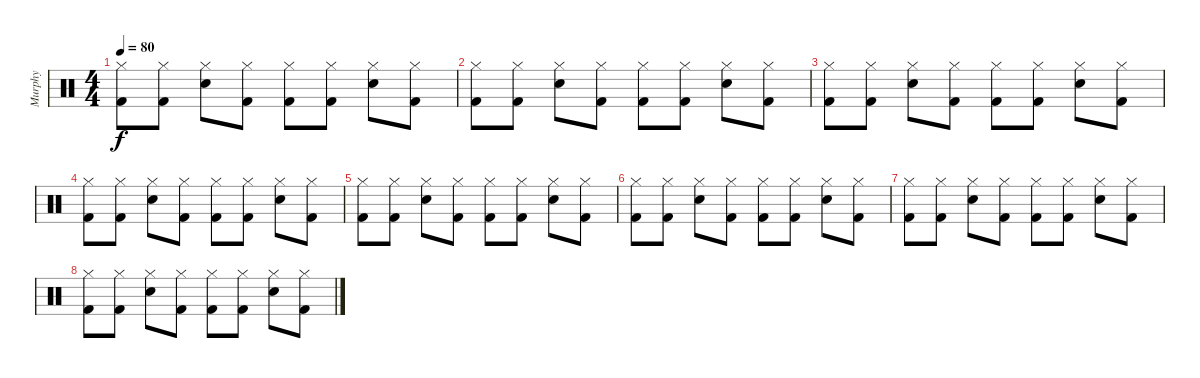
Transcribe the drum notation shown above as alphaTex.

\track ("Murphy" "Murphy") {instrument percussion}
\staff {score}
\articulation defaults
\ts (4 4)
\tempo 80
\clef neutral
\ks c
("Hi-Hat (closed)" "Kick (hit) 2").8{dy f} ("Hi-Hat (closed)" "Kick (hit) 2").8 ("Hi-Hat (closed)" "Snare (hit) 2").8 ("Hi-Hat (closed)" "Kick (hit) 2").8 ("Hi-Hat (closed)" "Kick (hit) 2").8 ("Hi-Hat (closed)" "Kick (hit) 2").8 ("Hi-Hat (closed)" "Snare (hit) 2").8 ("Hi-Hat (closed)" "Kick (hit) 2").8 |
("Hi-Hat (closed)" "Kick (hit) 2").8 ("Hi-Hat (closed)" "Kick (hit) 2").8 ("Hi-Hat (closed)" "Snare (hit) 2").8 ("Hi-Hat (closed)" "Kick (hit) 2").8 ("Hi-Hat (closed)" "Kick (hit) 2").8 ("Hi-Hat (closed)" "Kick (hit) 2").8 ("Hi-Hat (closed)" "Snare (hit) 2").8 ("Hi-Hat (closed)" "Kick (hit) 2").8 |
("Hi-Hat (closed)" "Kick (hit) 2").8 ("Hi-Hat (closed)" "Kick (hit) 2").8 ("Hi-Hat (closed)" "Snare (hit) 2").8 ("Hi-Hat (closed)" "Kick (hit) 2").8 ("Hi-Hat (closed)" "Kick (hit) 2").8 ("Hi-Hat (closed)" "Kick (hit) 2").8 ("Hi-Hat (closed)" "Snare (hit) 2").8 ("Hi-Hat (closed)" "Kick (hit) 2").8 |
("Hi-Hat (closed)" "Kick (hit) 2").8 ("Hi-Hat (closed)" "Kick (hit) 2").8 ("Hi-Hat (closed)" "Snare (hit) 2").8 ("Hi-Hat (closed)" "Kick (hit) 2").8 ("Hi-Hat (closed)" "Kick (hit) 2").8 ("Hi-Hat (closed)" "Kick (hit) 2").8 ("Hi-Hat (closed)" "Snare (hit) 2").8 ("Hi-Hat (closed)" "Kick (hit) 2").8 |
("Hi-Hat (closed)" "Kick (hit) 2").8 ("Hi-Hat (closed)" "Kick (hit) 2").8 ("Hi-Hat (closed)" "Snare (hit) 2").8 ("Hi-Hat (closed)" "Kick (hit) 2").8 ("Hi-Hat (closed)" "Kick (hit) 2").8 ("Hi-Hat (closed)" "Kick (hit) 2").8 ("Hi-Hat (closed)" "Snare (hit) 2").8 ("Hi-Hat (closed)" "Kick (hit) 2").8 |
("Hi-Hat (closed)" "Kick (hit) 2").8 ("Hi-Hat (closed)" "Kick (hit) 2").8 ("Hi-Hat (closed)" "Snare (hit) 2").8 ("Hi-Hat (closed)" "Kick (hit) 2").8 ("Hi-Hat (closed)" "Kick (hit) 2").8 ("Hi-Hat (closed)" "Kick (hit) 2").8 ("Hi-Hat (closed)" "Snare (hit) 2").8 ("Hi-Hat (closed)" "Kick (hit) 2").8 |
("Hi-Hat (closed)" "Kick (hit) 2").8 ("Hi-Hat (closed)" "Kick (hit) 2").8 ("Hi-Hat (closed)" "Snare (hit) 2").8 ("Hi-Hat (closed)" "Kick (hit) 2").8 ("Hi-Hat (closed)" "Kick (hit) 2").8 ("Hi-Hat (closed)" "Kick (hit) 2").8 ("Hi-Hat (closed)" "Snare (hit) 2").8 ("Hi-Hat (closed)" "Kick (hit) 2").8 |
("Hi-Hat (closed)" "Kick (hit) 2").8 ("Hi-Hat (closed)" "Kick (hit) 2").8 ("Hi-Hat (closed)" "Snare (hit) 2").8 ("Hi-Hat (closed)" "Kick (hit) 2").8 ("Hi-Hat (closed)" "Kick (hit) 2").8 ("Hi-Hat (closed)" "Kick (hit) 2").8 ("Hi-Hat (closed)" "Snare (hit) 2").8 ("Hi-Hat (closed)" "Kick (hit) 2").8
